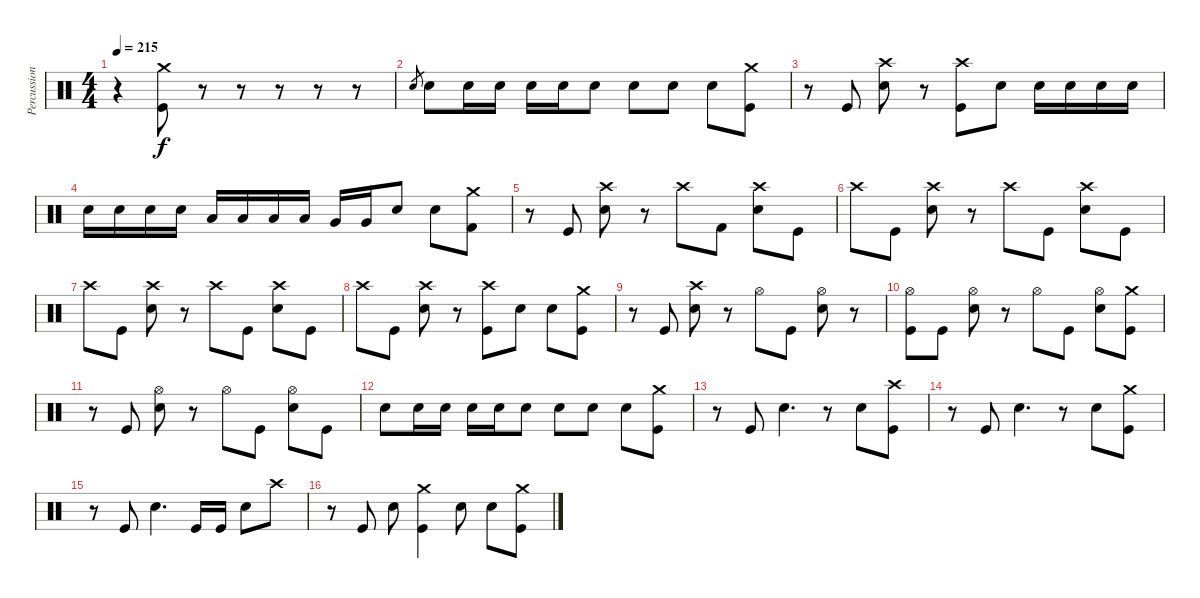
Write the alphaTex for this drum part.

\track ("Percussion" "Percussion") {instrument percussion}
\staff {score}
\articulation defaults
\ts (4 4)
\tempo 215
\clef neutral
\ks c
r.4{dy f} ("Crash medium (hit)" "Kick (hit)").8 r.8{volume 0} r.8 r.8 r.8 r.8 |
"Electric Snare (hit)".8{gr} "Electric Snare (hit)".8{volume 13} "Electric Snare (hit)".16 "Electric Snare (hit)".16 "Electric Snare (hit)".16 "Electric Snare (hit)".16 "Electric Snare (hit)".8 "Electric Snare (hit)".8 "Electric Snare (hit)".8 "Electric Snare (hit)".8 ("Crash medium (hit)" "Kick (hit)").8 |
r.8 "Kick (hit)".8 ("Crash high (hit)" "Electric Snare (hit)").8 r.8 ("Crash high (hit)" "Kick (hit)").8 "Electric Snare (hit)".8 "Electric Snare (hit)".16 "Electric Snare (hit)".16 "Electric Snare (hit)".16 "Electric Snare (hit)".16 |
"Electric Snare (hit)".16 "Electric Snare (hit)".16 "Electric Snare (hit)".16 "Electric Snare (hit)".16 "Low Tom (hit)".16 "Low Tom (hit)".16 "Low Tom (hit)".16 "Low Tom (hit)".16 "Very Low Tom (hit)".16 "Very Low Tom (hit)".16 "Electric Snare (hit)".8 "Electric Snare (hit)".8 ("Crash medium (hit)" "Kick (hit) 2").8 |
r.8 "Kick (hit)".8 ("Crash high (hit)" "Electric Snare (hit)").8 r.8 "Crash high (hit)".8 "Kick (hit) 2".8 ("Crash high (hit)" "Electric Snare (hit)").8 "Kick (hit)".8 |
"Crash high (hit)".8 "Kick (hit)".8 ("Crash high (hit)" "Electric Snare (hit)").8 r.8 "Crash high (hit)".8 "Kick (hit)".8 ("Crash high (hit)" "Electric Snare (hit)").8 "Kick (hit)".8 |
"Crash high (hit)".8 "Kick (hit)".8 ("Crash high (hit)" "Electric Snare (hit)").8 r.8 "Crash high (hit)".8 "Kick (hit)".8 ("Crash high (hit)" "Electric Snare (hit)").8 "Kick (hit)".8 |
"Crash high (hit)".8 "Kick (hit)".8 ("Crash high (hit)" "Electric Snare (hit)").8 r.8 ("Crash high (hit)" "Kick (hit)").8 "Electric Snare (hit)".8 "Electric Snare (hit)".8 ("Crash medium (hit)" "Kick (hit)").8 |
r.8 "Kick (hit)".8 ("Crash high (hit)" "Electric Snare (hit)").8 r.8 "Hi-Hat (open)".8 "Kick (hit)".8 ("Hi-Hat (open)" "Electric Snare (hit)").8 r.8 |
("Hi-Hat (open)" "Kick (hit)").8 "Kick (hit)".8 ("Hi-Hat (open)" "Electric Snare (hit)").8 r.8 "Hi-Hat (open)".8 "Kick (hit)".8 ("Hi-Hat (open)" "Electric Snare (hit)").8 ("Crash medium (hit)" "Kick (hit)").8 |
r.8 "Kick (hit)".8 ("Hi-Hat (open)" "Electric Snare (hit)").8 r.8 "Hi-Hat (open)".8 "Kick (hit)".8 ("Hi-Hat (open)" "Electric Snare (hit)").8 "Kick (hit)".8 |
"Electric Snare (hit)".8 "Electric Snare (hit)".16 "Electric Snare (hit)".16 "Electric Snare (hit)".16 "Electric Snare (hit)".16 "Electric Snare (hit)".8 "Electric Snare (hit)".8 "Electric Snare (hit)".8 "Electric Snare (hit)".8 ("Crash medium (hit)" "Kick (hit)").8 |
r.8 "Kick (hit)".8 "Electric Snare (hit)".4{d} r.8 "Electric Snare (hit)".8 ("Crash high (hit)" "Kick (hit)").8 |
r.8 "Kick (hit)".8 "Electric Snare (hit)".4{d} r.8 "Electric Snare (hit)".8 ("Crash medium (hit)" "Kick (hit)").8 |
r.8 "Kick (hit)".8 "Electric Snare (hit)".4{d} "Kick (hit)".16 "Kick (hit)".16 "Electric Snare (hit)".8 "Crash high (hit)".8 |
r.8 "Kick (hit)".8 "Electric Snare (hit)".8 ("Crash medium (hit)" "Kick (hit)").4 "Electric Snare (hit)".8 "Electric Snare (hit)".8 ("Crash medium (hit)" "Kick (hit)").8
